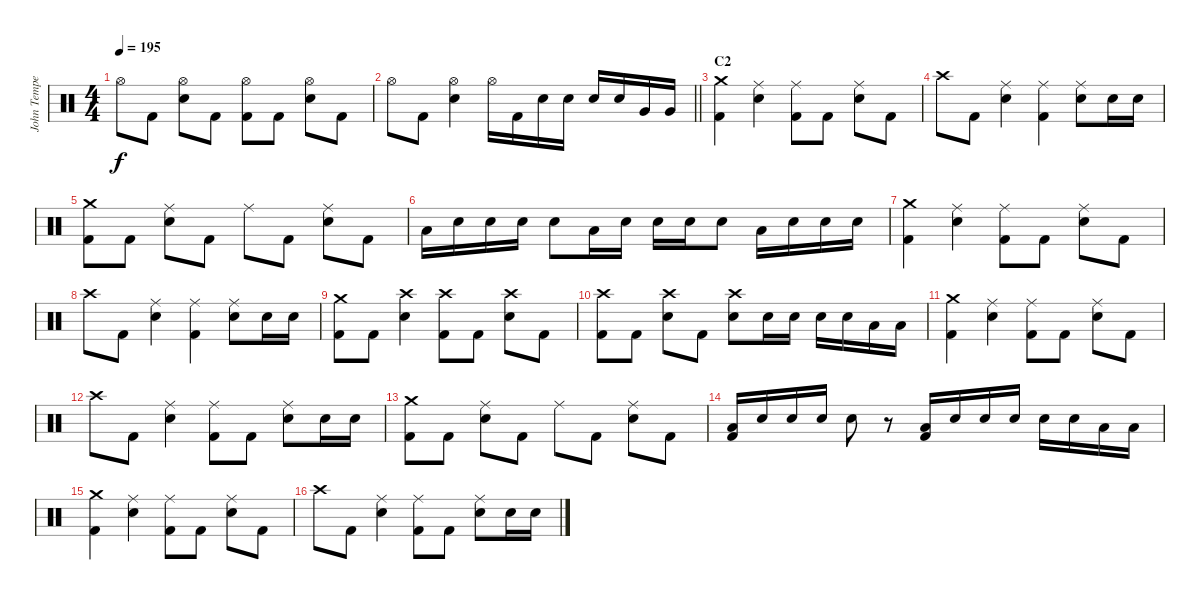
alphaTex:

\track ("John Tempesta" "John Tempe") {instrument percussion}
\staff {score}
\articulation defaults
\ts (4 4)
\tempo 195
\clef neutral
\ks c "Hi-Hat (open)".8{dy f} "Kick (hit) 2".8
("Hi-Hat (open)" "Electric Snare (hit)").8 "Kick (hit) 2".8 ("Hi-Hat (open)" "Kick (hit) 2").8 "Kick (hit) 2".8 ("Hi-Hat (open)" "Electric Snare (hit)").8 "Kick (hit) 2".8 |
\barLineRight lightlight "Hi-Hat (open)".8 "Kick (hit) 2".8
("Hi-Hat (open)" "Electric Snare (hit)").4 "Hi-Hat (open)".16 "Kick (hit) 2".16 "Electric Snare (hit)".16 "Electric Snare (hit)".16 "Electric Snare (hit)".16 "Electric Snare (hit)".16 "Very Low Tom (hit)".16 "Very Low Tom (hit)".16 |
\section ("" "C2")
("Crash medium (hit)" "Kick (hit) 2").4 ("Ride (middle)" "Electric Snare (hit)").4 ("Ride (middle)" "Kick (hit) 2").8 "Kick (hit) 2".8 ("Ride (middle)" "Electric Snare (hit)").8 "Kick (hit) 2".8 |
"Crash high (hit)".8 "Kick (hit) 2".8 ("Ride (middle)" "Electric Snare (hit)").4 ("Ride (middle)" "Kick (hit) 2").4 ("Ride (middle)" "Electric Snare (hit)").8 "Electric Snare (hit)".16 "Electric Snare (hit)".16 |
("Crash medium (hit)" "Kick (hit) 2").8 "Kick (hit) 2".8 ("Ride (middle)" "Electric Snare (hit)").8 "Kick (hit) 2".8 "Ride (middle)".8 "Kick (hit) 2".8 ("Ride (middle)" "Electric Snare (hit)").8 "Kick (hit) 2".8 |
"Low Floor Tom (hit)".16 "Electric Snare (hit)".16 "Electric Snare (hit)".16 "Electric Snare (hit)".16 "Electric Snare (hit)".8 "Low Floor Tom (hit)".16 "Electric Snare (hit)".16 "Electric Snare (hit)".16 "Electric Snare (hit)".16 "Electric Snare (hit)".8 "Low Floor Tom (hit)".16 "Electric Snare (hit)".16 "Electric Snare (hit)".16 "Electric Snare (hit)".16 |
("Crash medium (hit)" "Kick (hit) 2").4 ("Ride (middle)" "Electric Snare (hit)").4 ("Ride (middle)" "Kick (hit) 2").8 "Kick (hit) 2".8 ("Ride (middle)" "Electric Snare (hit)").8 "Kick (hit) 2".8 |
"Crash high (hit)".8 "Kick (hit) 2".8 ("Ride (middle)" "Electric Snare (hit)").4 ("Ride (middle)" "Kick (hit) 2").4 ("Ride (middle)" "Electric Snare (hit)").8 "Electric Snare (hit)".16 "Electric Snare (hit)".16 |
("Crash medium (hit)" "Kick (hit) 2").8 "Kick (hit) 2".8 ("Crash high (hit)" "Electric Snare (hit)").4 ("Crash high (hit)" "Kick (hit) 2").8 "Kick (hit) 2".8 ("Crash high (hit)" "Electric Snare (hit)").8 "Kick (hit) 2".8 |
("Crash high (hit)" "Kick (hit) 2").8 "Kick (hit) 2".8 ("Crash high (hit)" "Electric Snare (hit)").8 "Kick (hit) 2".8 ("Crash high (hit)" "Electric Snare (hit)").8 "Electric Snare (hit)".16 "Electric Snare (hit)".16 "Electric Snare (hit)".16 "Electric Snare (hit)".16 "Low Tom (hit)".16 "Low Tom (hit)".16 |
("Crash medium (hit)" "Kick (hit) 2").4 ("Ride (middle)" "Electric Snare (hit)").4 ("Ride (middle)" "Kick (hit) 2").8 "Kick (hit) 2".8 ("Ride (middle)" "Electric Snare (hit)").8 "Kick (hit) 2".8 |
"Crash high (hit)".8 "Kick (hit) 2".8 ("Ride (middle)" "Electric Snare (hit)").4 ("Ride (middle)" "Kick (hit) 2").8 "Kick (hit) 2".8 ("Ride (middle)" "Electric Snare (hit)").8 "Electric Snare (hit)".16 "Electric Snare (hit)".16 |
("Crash medium (hit)" "Kick (hit) 2").8 "Kick (hit) 2".8 ("Ride (middle)" "Electric Snare (hit)").8 "Kick (hit) 2".8 "Ride (middle)".8 "Kick (hit) 2".8 ("Ride (middle)" "Electric Snare (hit)").8 "Kick (hit) 2".8 |
("Low Floor Tom (hit)" "Kick (hit) 2").16 "Electric Snare (hit)".16 "Electric Snare (hit)".16 "Electric Snare (hit)".16 "Electric Snare (hit)".8 r.8 ("Low Floor Tom (hit)" "Kick (hit) 2").16 "Electric Snare (hit)".16 "Electric Snare (hit)".16 "Electric Snare (hit)".16 "Electric Snare (hit)".16 "Electric Snare (hit)".16 "Low Tom (hit)".16 "Low Tom (hit)".16 |
("Crash medium (hit)" "Kick (hit) 2").4 ("Ride (middle)" "Electric Snare (hit)").4 ("Ride (middle)" "Kick (hit) 2").8 "Kick (hit) 2".8 ("Ride (middle)" "Electric Snare (hit)").8 "Kick (hit) 2".8 |
"Crash high (hit)".8 "Kick (hit) 2".8 ("Ride (middle)" "Electric Snare (hit)").4 ("Ride (middle)" "Kick (hit) 2").8 "Kick (hit) 2".8 ("Ride (middle)" "Electric Snare (hit)").8 "Electric Snare (hit)".16 "Electric Snare (hit)".16
